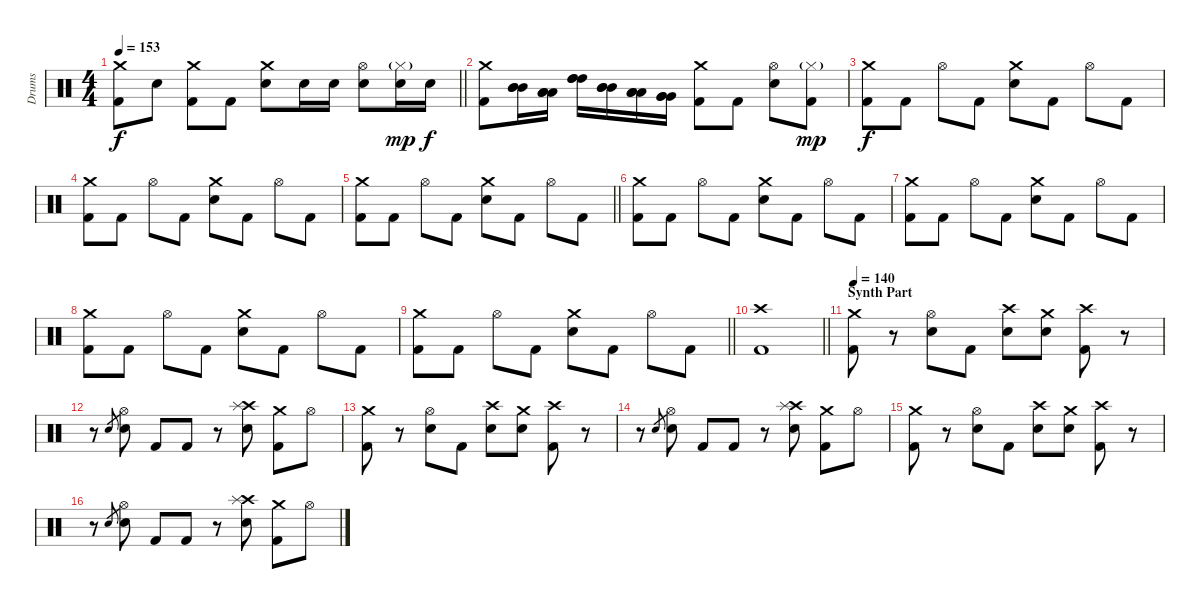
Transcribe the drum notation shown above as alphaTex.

\track ("Drums" "Drums") {instrument percussion}
\staff {score}
\articulation defaults
\ts (4 4)
\tempo 153
\clef neutral
\barLineRight lightlight
\ks c
("Crash medium (hit)" "Kick (hit) 2").8{dy f} "Electric Snare (hit)".8 ("Crash medium (hit)" "Kick (hit) 2").8 "Kick (hit) 2".8 ("Crash medium (hit)" "Electric Snare (hit)").8 "Electric Snare (hit)".16 "Electric Snare (hit)".16 ("Hi-Hat (open)" "Electric Snare (hit)").8 ("Hi-Hat (closed)"{g} "Electric Snare (hit)").16{dy mp} "Electric Snare (hit)".16{dy f} |
("Crash medium (hit)" "Kick (hit) 2").8 ("Mid Tom (hit)" "Mid Tom (hit)" "Mid Tom (hit)").16 ("Low Tom (hit)" "Low Tom (hit)" "Low Tom (hit)").16 ("High Tom (hit)" "High Tom (hit)" "High Tom (hit)").16 ("Mid Tom (hit)" "Mid Tom (hit)" "Mid Tom (hit)").16 ("Low Tom (hit)" "Low Tom (hit)" "Low Tom (hit)").16 ("Very Low Tom (hit)" "Very Low Tom (hit)" "Very Low Tom (hit)").16 ("Crash medium (hit)" "Kick (hit) 2").8 "Kick (hit) 2".8 ("Hi-Hat (open)" "Electric Snare (hit)").8 ("Hi-Hat (closed)"{g} "Kick (hit) 2").8{dy mp} |
("Crash medium (hit)" "Kick (hit) 2").8{dy f} "Kick (hit) 2".8 "Hi-Hat (open)".8 "Kick (hit) 2".8 ("Crash medium (hit)" "Electric Snare (hit)").8 "Kick (hit) 2".8 "Hi-Hat (open)".8 "Kick (hit) 2".8 |
("Crash medium (hit)" "Kick (hit) 2").8 "Kick (hit) 2".8 "Hi-Hat (open)".8 "Kick (hit) 2".8 ("Crash medium (hit)" "Electric Snare (hit)").8 "Kick (hit) 2".8 "Hi-Hat (open)".8 "Kick (hit) 2".8 |
\barLineRight lightlight
("Crash medium (hit)" "Kick (hit) 2").8 "Kick (hit) 2".8 "Hi-Hat (open)".8 "Kick (hit) 2".8 ("Crash medium (hit)" "Electric Snare (hit)").8 "Kick (hit) 2".8 "Hi-Hat (open)".8 "Kick (hit) 2".8 |
("Crash medium (hit)" "Kick (hit) 2").8 "Kick (hit) 2".8 "Hi-Hat (open)".8 "Kick (hit) 2".8 ("Crash medium (hit)" "Electric Snare (hit)").8 "Kick (hit) 2".8 "Hi-Hat (open)".8 "Kick (hit) 2".8 |
("Crash medium (hit)" "Kick (hit) 2").8 "Kick (hit) 2".8 "Hi-Hat (open)".8 "Kick (hit) 2".8 ("Crash medium (hit)" "Electric Snare (hit)").8 "Kick (hit) 2".8 "Hi-Hat (open)".8 "Kick (hit) 2".8 |
("Crash medium (hit)" "Kick (hit) 2").8 "Kick (hit) 2".8 "Hi-Hat (open)".8 "Kick (hit) 2".8 ("Crash medium (hit)" "Electric Snare (hit)").8 "Kick (hit) 2".8 "Hi-Hat (open)".8 "Kick (hit) 2".8 |
\barLineRight lightlight
("Crash medium (hit)" "Kick (hit) 2").8 "Kick (hit) 2".8 "Hi-Hat (open)".8 "Kick (hit) 2".8 ("Crash medium (hit)" "Electric Snare (hit)").8 "Kick (hit) 2".8 "Hi-Hat (open)".8 "Kick (hit) 2".8 |
\barLineRight lightlight
("Crash high (hit)" "Kick (hit) 2").1 |
\section ("" "Synth Part")
\tempo 140
("Crash medium (hit)" "Kick (hit) 2").8 r.8 ("Hi-Hat (open)" "Electric Snare (hit)").8 "Kick (hit) 2".8 ("Crash high (hit)" "Electric Snare (hit)").8 ("Crash medium (hit)" "Electric Snare (hit)").8 ("Crash high (hit)" "Kick (hit) 2").8 r.8 |
r.8 "Electric Snare (hit)".8{gr} ("Hi-Hat (open)" "Electric Snare (hit)").8 "Kick (hit) 2".8 "Kick (hit) 2".8 r.8 ("Crash high (hit)" "Splash (hit)" "Electric Snare (hit)").8 ("Crash medium (hit)" "Kick (hit) 2").8 "Hi-Hat (open)".8 |
("Crash medium (hit)" "Kick (hit) 2").8 r.8 ("Hi-Hat (open)" "Electric Snare (hit)").8 "Kick (hit) 2".8 ("Crash high (hit)" "Electric Snare (hit)").8 ("Crash medium (hit)" "Electric Snare (hit)").8 ("Crash high (hit)" "Kick (hit) 2").8 r.8 |
r.8 "Electric Snare (hit)".8{gr} ("Hi-Hat (open)" "Electric Snare (hit)").8 "Kick (hit) 2".8 "Kick (hit) 2".8 r.8 ("Crash high (hit)" "Splash (hit)" "Electric Snare (hit)").8 ("Crash medium (hit)" "Kick (hit) 2").8 "Hi-Hat (open)".8 |
("Crash medium (hit)" "Kick (hit) 2").8 r.8 ("Hi-Hat (open)" "Electric Snare (hit)").8 "Kick (hit) 2".8 ("Crash high (hit)" "Electric Snare (hit)").8 ("Crash medium (hit)" "Electric Snare (hit)").8 ("Crash high (hit)" "Kick (hit) 2").8 r.8 |
r.8 "Electric Snare (hit)".8{gr} ("Hi-Hat (open)" "Electric Snare (hit)").8 "Kick (hit) 2".8 "Kick (hit) 2".8 r.8 ("Crash high (hit)" "Splash (hit)" "Electric Snare (hit)").8 ("Crash medium (hit)" "Kick (hit) 2").8 "Hi-Hat (open)".8
